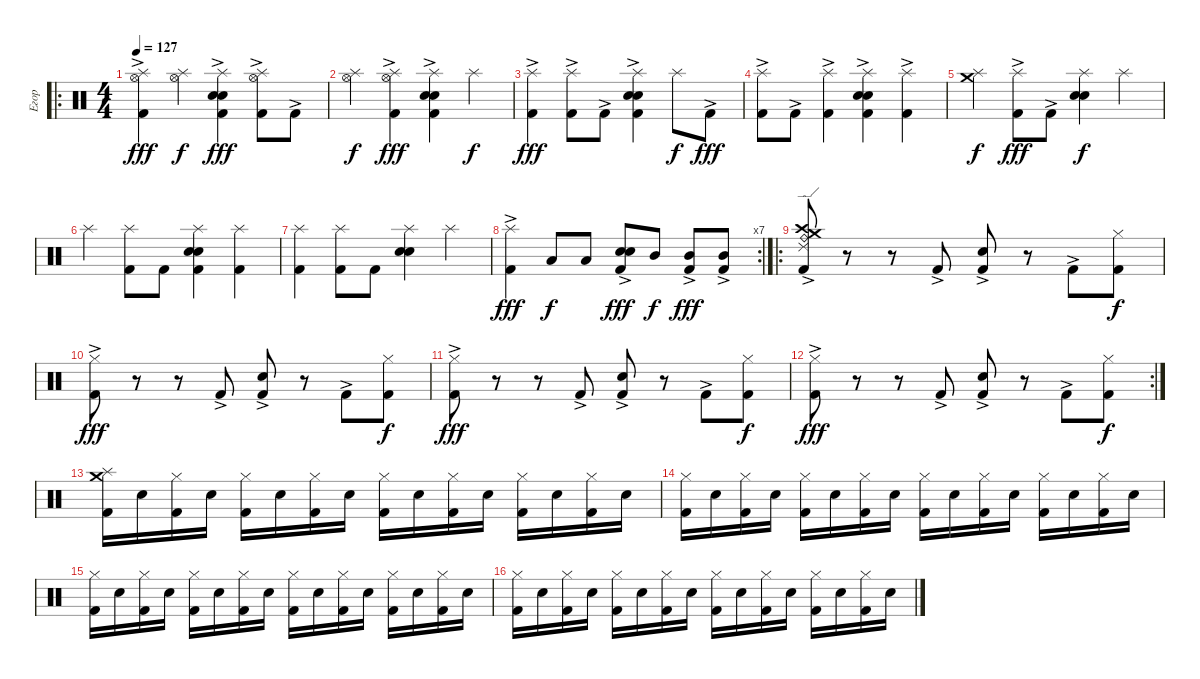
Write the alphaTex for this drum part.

\track ("Егор" "Егор") {instrument percussion}
\staff {score}
\articulation defaults
\ro
\ts (4 4)
\tempo 127
\tempo 130
\tempo 127
\clef neutral
\ks c
("Splash (hit)" "Hi-Hat (open)" "Kick (hit) 2"{ac}).4{dy fff} ("Splash (hit)" "Hi-Hat (open)").4{dy f} ("Splash (hit)" "Snare (hit) 2" "Electric Snare (hit)" "Kick (hit) 2"{ac}).4{dy fff} ("Splash (hit)" "Hi-Hat (open)" "Kick (hit) 2"{ac}).8 "Kick (hit) 2"{ac}.8 |
("Splash (hit)" "Hi-Hat (open)").4{dy f} ("Splash (hit)" "Hi-Hat (open)" "Kick (hit) 2"{ac}).4{dy fff} ("Splash (hit)" "Snare (hit) 2" "Electric Snare (hit)" "Kick (hit) 2"{ac}).4 "Splash (hit)".4{dy f} |
("Splash (hit)" "Kick (hit) 2"{ac}).4{dy fff} ("Splash (hit)" "Kick (hit) 2"{ac}).8 "Kick (hit) 2"{ac}.8 ("Splash (hit)" "Snare (hit) 2" "Electric Snare (hit)" "Kick (hit) 2"{ac}).4 "Splash (hit)".8{dy f} "Kick (hit) 2"{ac}.8{dy fff} |
("Splash (hit)" "Kick (hit) 2"{ac}).8 "Kick (hit) 2"{ac}.8 ("Splash (hit)" "Kick (hit) 2"{ac}).4 ("Splash (hit)" "Snare (hit) 2" "Electric Snare (hit)" "Kick (hit) 2"{ac}).4 ("Splash (hit)" "Kick (hit) 2"{ac}).4 |
("Splash (hit)" "Crash medium (hit)").4{dy f} ("Splash (hit)" "Kick (hit) 2"{ac}).8{dy fff} "Kick (hit) 2"{ac}.8 ("Splash (hit)" "Snare (hit) 2" "Electric Snare (hit)").4{dy f} "Splash (hit)".4 |
"Splash (hit)".4 ("Splash (hit)" "Kick (hit) 2").8 "Kick (hit) 2".8 ("Splash (hit)" "Snare (hit) 2" "Electric Snare (hit)" "Kick (hit) 2").4 ("Splash (hit)" "Kick (hit) 2").4 |
("Splash (hit)" "Kick (hit) 2").4 ("Splash (hit)" "Kick (hit) 2").8 "Kick (hit) 2".8 ("Splash (hit)" "Snare (hit) 2" "Electric Snare (hit)").4 "Splash (hit)".4 |
\rc 7
("Splash (hit)" "Kick (hit) 2"{ac}).4{dy fff} "Low Tom (hit)".8{dy f} "Low Tom (hit)".8 ("Electric Snare (hit)" "Snare (hit) 2" "Kick (hit) 2"{ac}).8{dy fff} "Mid Tom (hit)".8{dy f} ("Mid Tom (hit)" "Kick (hit) 2"{ac}).8{dy fff} ("Mid Tom (hit)" "Kick (hit) 2"{ac}).8 |
\ro
("Crash medium (hit)" "Crash high (hit)" "Ride (bell)" "Ride (edge) 2" "Kick (hit) 2"{ac}).8 r.8 r.8 "Kick (hit) 2"{ac}.8 ("Electric Snare (hit)" "Kick (hit) 2"{ac}).8 r.8 "Kick (hit) 2"{ac}.8 ("Hi-Hat (closed)" "Kick (hit) 2").8{dy f} |
("Hi-Hat (closed)" "Kick (hit) 2"{ac}).8{dy fff} r.8 r.8 "Kick (hit) 2"{ac}.8 ("Electric Snare (hit)" "Kick (hit) 2"{ac}).8 r.8 "Kick (hit) 2"{ac}.8 ("Hi-Hat (closed)" "Kick (hit) 2").8{dy f} |
("Hi-Hat (closed)" "Kick (hit) 2"{ac}).8{dy fff} r.8 r.8 "Kick (hit) 2"{ac}.8 ("Electric Snare (hit)" "Kick (hit) 2"{ac}).8 r.8 "Kick (hit) 2"{ac}.8 ("Hi-Hat (closed)" "Kick (hit) 2").8{dy f} |
\rc 2
("Hi-Hat (closed)" "Kick (hit) 2"{ac}).8{dy fff} r.8 r.8 "Kick (hit) 2"{ac}.8 ("Electric Snare (hit)" "Kick (hit) 2"{ac}).8 r.8 "Kick (hit) 2"{ac}.8 ("Hi-Hat (closed)" "Kick (hit) 2").8{dy f} |
("Crash medium (hit)" "Splash (hit)" "Kick (hit) 2").16 "Electric Snare (hit)".16 ("Hi-Hat (closed)" "Kick (hit) 2").16 "Electric Snare (hit)".16 ("Hi-Hat (closed)" "Kick (hit) 2").16 "Electric Snare (hit)".16 ("Hi-Hat (closed)" "Kick (hit) 2").16 "Electric Snare (hit)".16 ("Hi-Hat (closed)" "Kick (hit) 2").16 "Electric Snare (hit)".16 ("Hi-Hat (closed)" "Kick (hit) 2").16 "Electric Snare (hit)".16 ("Hi-Hat (closed)" "Kick (hit) 2").16 "Electric Snare (hit)".16 ("Hi-Hat (closed)" "Kick (hit) 2").16 "Electric Snare (hit)".16 |
("Hi-Hat (closed)" "Kick (hit) 2").16 "Electric Snare (hit)".16 ("Hi-Hat (closed)" "Kick (hit) 2").16 "Electric Snare (hit)".16 ("Hi-Hat (closed)" "Kick (hit) 2").16 "Electric Snare (hit)".16 ("Hi-Hat (closed)" "Kick (hit) 2").16 "Electric Snare (hit)".16 ("Hi-Hat (closed)" "Kick (hit) 2").16 "Electric Snare (hit)".16 ("Hi-Hat (closed)" "Kick (hit) 2").16 "Electric Snare (hit)".16 ("Hi-Hat (closed)" "Kick (hit) 2").16 "Electric Snare (hit)".16 ("Hi-Hat (closed)" "Kick (hit) 2").16 "Electric Snare (hit)".16 |
("Hi-Hat (closed)" "Kick (hit) 2").16 "Electric Snare (hit)".16 ("Hi-Hat (closed)" "Kick (hit) 2").16 "Electric Snare (hit)".16 ("Hi-Hat (closed)" "Kick (hit) 2").16 "Electric Snare (hit)".16 ("Hi-Hat (closed)" "Kick (hit) 2").16 "Electric Snare (hit)".16 ("Hi-Hat (closed)" "Kick (hit) 2").16 "Electric Snare (hit)".16 ("Hi-Hat (closed)" "Kick (hit) 2").16 "Electric Snare (hit)".16 ("Hi-Hat (closed)" "Kick (hit) 2").16 "Electric Snare (hit)".16 ("Hi-Hat (closed)" "Kick (hit) 2").16 "Electric Snare (hit)".16 |
("Hi-Hat (closed)" "Kick (hit) 2").16 "Electric Snare (hit)".16 ("Hi-Hat (closed)" "Kick (hit) 2").16 "Electric Snare (hit)".16 ("Hi-Hat (closed)" "Kick (hit) 2").16 "Electric Snare (hit)".16 ("Hi-Hat (closed)" "Kick (hit) 2").16 "Electric Snare (hit)".16 ("Hi-Hat (closed)" "Kick (hit) 2").16 "Electric Snare (hit)".16 ("Hi-Hat (closed)" "Kick (hit) 2").16 "Electric Snare (hit)".16 ("Hi-Hat (closed)" "Kick (hit) 2").16 "Electric Snare (hit)".16 ("Hi-Hat (closed)" "Kick (hit) 2").16 "Electric Snare (hit)".16
